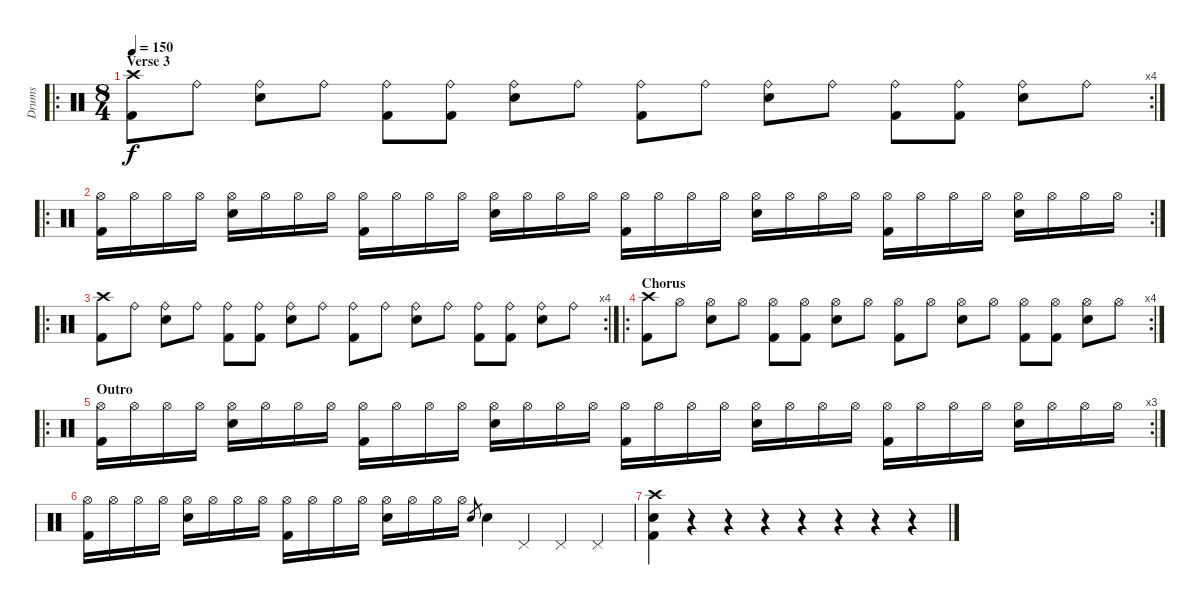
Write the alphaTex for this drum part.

\track ("Drums" "Drums") {instrument percussion}
\staff {score}
\articulation defaults
\ro
\rc 4
\ts (8 4)
\section ("" "Verse 3")
\tempo 150
\clef neutral
\ks c
("Crash high (hit)" "Kick (hit) 2").8{dy f} "Ride (bell)".8 ("Ride (bell)" "Electric Snare (hit)").8 "Ride (bell)".8 ("Ride (bell)" "Kick (hit) 2").8 ("Ride (bell)" "Kick (hit) 2").8 ("Ride (bell)" "Electric Snare (hit)").8 "Ride (bell)".8 ("Ride (bell)" "Kick (hit) 2").8 "Ride (bell)".8 ("Ride (bell)" "Electric Snare (hit)").8 "Ride (bell)".8 ("Ride (bell)" "Kick (hit) 2").8 ("Ride (bell)" "Kick (hit) 2").8 ("Ride (bell)" "Electric Snare (hit)").8 "Ride (bell)".8 |
\ro
\rc 2
("Hi-Hat (open)" "Kick (hit) 2").16 "Hi-Hat (open)".16 "Hi-Hat (open)".16 "Hi-Hat (open)".16 ("Hi-Hat (open)" "Electric Snare (hit)").16 "Hi-Hat (open)".16 "Hi-Hat (open)".16 "Hi-Hat (open)".16 ("Hi-Hat (open)" "Kick (hit) 2").16 "Hi-Hat (open)".16 "Hi-Hat (open)".16 "Hi-Hat (open)".16 ("Hi-Hat (open)" "Electric Snare (hit)").16 "Hi-Hat (open)".16 "Hi-Hat (open)".16 "Hi-Hat (open)".16 ("Hi-Hat (open)" "Kick (hit) 2").16 "Hi-Hat (open)".16 "Hi-Hat (open)".16 "Hi-Hat (open)".16 ("Hi-Hat (open)" "Electric Snare (hit)").16 "Hi-Hat (open)".16 "Hi-Hat (open)".16 "Hi-Hat (open)".16 ("Hi-Hat (open)" "Kick (hit) 2").16 "Hi-Hat (open)".16 "Hi-Hat (open)".16 "Hi-Hat (open)".16 ("Hi-Hat (open)" "Electric Snare (hit)").16 "Hi-Hat (open)".16 "Hi-Hat (open)".16 "Hi-Hat (open)".16 |
\ro
\rc 4
("Crash high (hit)" "Kick (hit) 2").8 "Ride (bell)".8 ("Ride (bell)" "Electric Snare (hit)").8 "Ride (bell)".8 ("Ride (bell)" "Kick (hit) 2").8 ("Ride (bell)" "Kick (hit) 2").8 ("Ride (bell)" "Electric Snare (hit)").8 "Ride (bell)".8 ("Ride (bell)" "Kick (hit) 2").8 "Ride (bell)".8 ("Ride (bell)" "Electric Snare (hit)").8 "Ride (bell)".8 ("Ride (bell)" "Kick (hit) 2").8 ("Ride (bell)" "Kick (hit) 2").8 ("Ride (bell)" "Electric Snare (hit)").8 "Ride (bell)".8 |
\ro
\rc 4
\section ("" "Chorus")
("Crash high (hit)" "Kick (hit) 2").8 "Hi-Hat (open)".8 ("Hi-Hat (open)" "Electric Snare (hit)").8 "Hi-Hat (open)".8 ("Hi-Hat (open)" "Kick (hit) 2").8 ("Hi-Hat (open)" "Kick (hit) 2").8 ("Hi-Hat (open)" "Electric Snare (hit)").8 "Hi-Hat (open)".8 ("Hi-Hat (open)" "Kick (hit) 2").8 "Hi-Hat (open)".8 ("Hi-Hat (open)" "Electric Snare (hit)").8 "Hi-Hat (open)".8 ("Hi-Hat (open)" "Kick (hit) 2").8 ("Hi-Hat (open)" "Kick (hit) 2").8 ("Hi-Hat (open)" "Electric Snare (hit)").8 "Hi-Hat (open)".8 |
\ro
\rc 3
\section ("" "Outro")
("Hi-Hat (open)" "Kick (hit) 2").16 "Hi-Hat (open)".16 "Hi-Hat (open)".16 "Hi-Hat (open)".16 ("Hi-Hat (open)" "Electric Snare (hit)").16 "Hi-Hat (open)".16 "Hi-Hat (open)".16 "Hi-Hat (open)".16 ("Hi-Hat (open)" "Kick (hit) 2").16 "Hi-Hat (open)".16 "Hi-Hat (open)".16 "Hi-Hat (open)".16 ("Hi-Hat (open)" "Electric Snare (hit)").16 "Hi-Hat (open)".16 "Hi-Hat (open)".16 "Hi-Hat (open)".16 ("Hi-Hat (open)" "Kick (hit) 2").16 "Hi-Hat (open)".16 "Hi-Hat (open)".16 "Hi-Hat (open)".16 ("Hi-Hat (open)" "Electric Snare (hit)").16 "Hi-Hat (open)".16 "Hi-Hat (open)".16 "Hi-Hat (open)".16 ("Hi-Hat (open)" "Kick (hit) 2").16 "Hi-Hat (open)".16 "Hi-Hat (open)".16 "Hi-Hat (open)".16 ("Hi-Hat (open)" "Electric Snare (hit)").16 "Hi-Hat (open)".16 "Hi-Hat (open)".16 "Hi-Hat (open)".16 |
("Hi-Hat (open)" "Kick (hit) 2").16 "Hi-Hat (open)".16 "Hi-Hat (open)".16 "Hi-Hat (open)".16 ("Hi-Hat (open)" "Electric Snare (hit)").16 "Hi-Hat (open)".16 "Hi-Hat (open)".16 "Hi-Hat (open)".16 ("Hi-Hat (open)" "Kick (hit) 2").16 "Hi-Hat (open)".16 "Hi-Hat (open)".16 "Hi-Hat (open)".16 ("Hi-Hat (open)" "Electric Snare (hit)").16 "Hi-Hat (open)".16 "Hi-Hat (open)".16 "Hi-Hat (open)".16 "Electric Snare (hit)".8{gr} "Electric Snare (hit)".4 "Pedal Hi-Hat (hit)".4 "Pedal Hi-Hat (hit)".4 "Pedal Hi-Hat (hit)".4 |
("Crash high (hit)" "Electric Snare (hit)" "Kick (hit) 2").4 r.4 r.4 r.4 r.4 r.4 r.4 r.4
